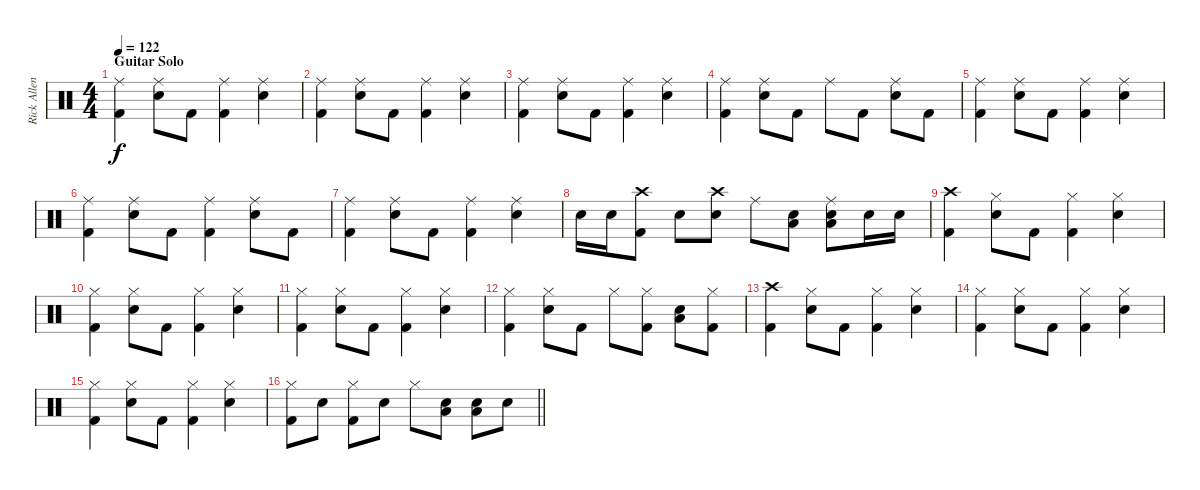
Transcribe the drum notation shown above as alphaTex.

\track ("Rick Allen" "Rick Allen") {instrument percussion}
\staff {score}
\articulation defaults
\ts (4 4)
\section ("" "Guitar Solo")
\tempo 122
\clef neutral
\ks c
("Ride (middle)" "Kick (hit) 2").4{dy f} ("Ride (middle)" "Electric Snare (hit)").8 "Kick (hit) 2".8 ("Ride (middle)" "Kick (hit) 2").4 ("Ride (middle)" "Electric Snare (hit)").4 |
("Ride (middle)" "Kick (hit) 2").4 ("Ride (middle)" "Electric Snare (hit)").8 "Kick (hit) 2".8 ("Ride (middle)" "Kick (hit) 2").4 ("Ride (middle)" "Electric Snare (hit)").4 |
("Ride (middle)" "Kick (hit) 2").4 ("Ride (middle)" "Electric Snare (hit)").8 "Kick (hit) 2".8 ("Ride (middle)" "Kick (hit) 2").4 ("Ride (middle)" "Electric Snare (hit)").4 |
("Ride (middle)" "Kick (hit) 2").4 ("Ride (middle)" "Electric Snare (hit)").8 "Kick (hit) 2".8 "Ride (middle)".8 "Kick (hit) 2".8 ("Ride (middle)" "Electric Snare (hit)").8 "Kick (hit) 2".8 |
("Ride (middle)" "Kick (hit) 2").4 ("Ride (middle)" "Electric Snare (hit)").8 "Kick (hit) 2".8 ("Ride (middle)" "Kick (hit) 2").4 ("Ride (middle)" "Electric Snare (hit)").4 |
("Ride (middle)" "Kick (hit) 2").4 ("Ride (middle)" "Electric Snare (hit)").8 "Kick (hit) 2".8 ("Ride (middle)" "Kick (hit) 2").4 ("Ride (middle)" "Electric Snare (hit)").8 "Kick (hit) 2".8 |
("Ride (middle)" "Kick (hit) 2").4 ("Ride (middle)" "Electric Snare (hit)").8 "Kick (hit) 2".8 ("Ride (middle)" "Kick (hit) 2").4 ("Ride (middle)" "Electric Snare (hit)").4 |
"Electric Snare (hit)".16 "Electric Snare (hit)".16 ("Crash high (hit)" "Kick (hit) 2").8 "Electric Snare (hit)".8 ("Crash high (hit)" "Electric Snare (hit)").8 "Ride (middle)".8 ("Low Tom (hit)" "Electric Snare (hit)").8 ("Ride (middle)" "Low Tom (hit)" "Electric Snare (hit)").8 "Electric Snare (hit)".16 "Electric Snare (hit)".16 |
("Crash high (hit)" "Kick (hit) 2").4 ("Hi-Hat (closed)" "Electric Snare (hit)").8 "Kick (hit) 2".8 ("Hi-Hat (closed)" "Kick (hit) 2").4 ("Hi-Hat (closed)" "Electric Snare (hit)").4 |
("Hi-Hat (closed)" "Kick (hit) 2").4 ("Hi-Hat (closed)" "Electric Snare (hit)").8 "Kick (hit) 2".8 ("Hi-Hat (closed)" "Kick (hit) 2").4 ("Hi-Hat (closed)" "Electric Snare (hit)").4 |
("Hi-Hat (closed)" "Kick (hit) 2").4 ("Hi-Hat (closed)" "Electric Snare (hit)").8 "Kick (hit) 2".8 ("Hi-Hat (closed)" "Kick (hit) 2").4 ("Hi-Hat (closed)" "Electric Snare (hit)").4 |
("Hi-Hat (closed)" "Kick (hit) 2").4 ("Hi-Hat (closed)" "Electric Snare (hit)").8 "Kick (hit) 2".8 "Hi-Hat (closed)".8 ("Hi-Hat (closed)" "Kick (hit) 2").8 ("Low Tom (hit)" "Electric Snare (hit)").8 ("Hi-Hat (closed)" "Kick (hit) 2").8 |
("Crash high (hit)" "Kick (hit) 2").4 ("Hi-Hat (closed)" "Electric Snare (hit)").8 "Kick (hit) 2".8 ("Hi-Hat (closed)" "Kick (hit) 2").4 ("Hi-Hat (closed)" "Electric Snare (hit)").4 |
("Hi-Hat (closed)" "Kick (hit) 2").4 ("Hi-Hat (closed)" "Electric Snare (hit)").8 "Kick (hit) 2".8 ("Hi-Hat (closed)" "Kick (hit) 2").4 ("Hi-Hat (closed)" "Electric Snare (hit)").4 |
("Hi-Hat (closed)" "Kick (hit) 2").4 ("Hi-Hat (closed)" "Electric Snare (hit)").8 "Kick (hit) 2".8 ("Hi-Hat (closed)" "Kick (hit) 2").4 ("Hi-Hat (closed)" "Electric Snare (hit)").4 |
\barLineRight lightlight
("Hi-Hat (closed)" "Kick (hit) 2").8 "Electric Snare (hit)".8 ("Hi-Hat (closed)" "Kick (hit) 2").8 "Electric Snare (hit)".8 "Hi-Hat (closed)".8 ("Low Tom (hit)" "Electric Snare (hit)").8 ("Low Tom (hit)" "Electric Snare (hit)").8 "Electric Snare (hit)".8
